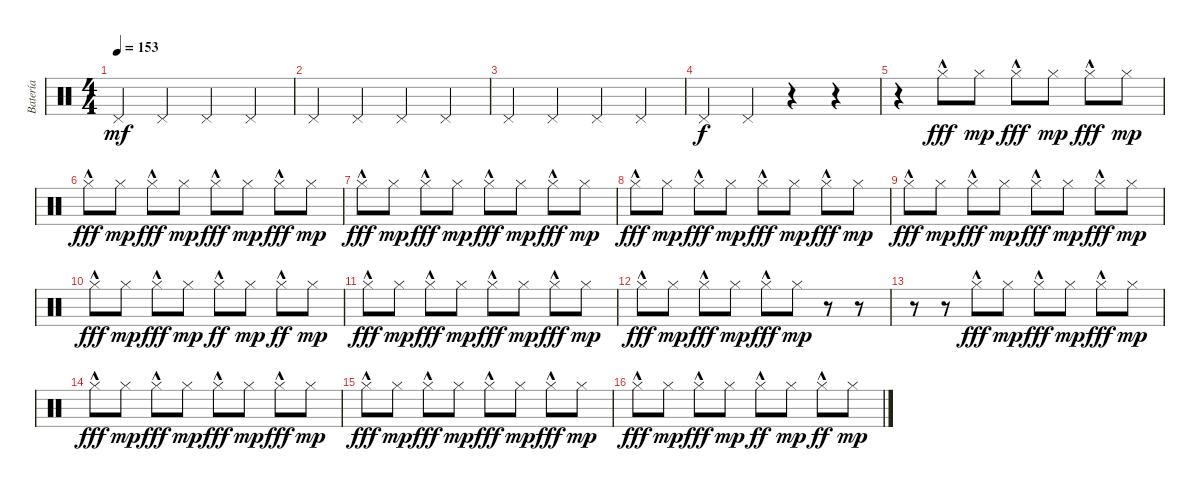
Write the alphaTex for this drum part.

\track ("Batería" "Batería") {instrument percussion}
\staff {score}
\articulation defaults
\ts (4 4)
\tempo 153
\clef neutral
\ks c "Pedal Hi-Hat (hit)".4{dy mf} "Pedal Hi-Hat (hit)".4 "Pedal Hi-Hat (hit)".4 "Pedal Hi-Hat (hit)".4
|
"Pedal Hi-Hat (hit)".4 "Pedal Hi-Hat (hit)".4 "Pedal Hi-Hat (hit)".4 "Pedal Hi-Hat (hit)".4 |
"Pedal Hi-Hat (hit)".4 "Pedal Hi-Hat (hit)".4 "Pedal Hi-Hat (hit)".4 "Pedal Hi-Hat (hit)".4 |
"Pedal Hi-Hat (hit)".4{dy f} "Pedal Hi-Hat (hit)".4 r.4 r.4 |
r.4 "Hi-Hat (closed)"{hac}.8{dy fff} "Hi-Hat (closed)".8{dy mp} "Hi-Hat (closed)"{hac}.8{dy fff} "Hi-Hat (closed)".8{dy mp} "Hi-Hat (closed)"{hac}.8{dy fff} "Hi-Hat (closed)".8{dy mp} |
"Hi-Hat (closed)"{hac}.8{dy fff} "Hi-Hat (closed)".8{dy mp} "Hi-Hat (closed)"{hac}.8{dy fff} "Hi-Hat (closed)".8{dy mp} "Hi-Hat (closed)"{hac}.8{dy fff} "Hi-Hat (closed)".8{dy mp} "Hi-Hat (closed)"{hac}.8{dy fff} "Hi-Hat (closed)".8{dy mp} |
"Hi-Hat (closed)"{hac}.8{dy fff} "Hi-Hat (closed)".8{dy mp} "Hi-Hat (closed)"{hac}.8{dy fff} "Hi-Hat (closed)".8{dy mp} "Hi-Hat (closed)"{hac}.8{dy fff} "Hi-Hat (closed)".8{dy mp} "Hi-Hat (closed)"{hac}.8{dy fff} "Hi-Hat (closed)".8{dy mp} |
"Hi-Hat (closed)"{hac}.8{dy fff} "Hi-Hat (closed)".8{dy mp} "Hi-Hat (closed)"{hac}.8{dy fff} "Hi-Hat (closed)".8{dy mp} "Hi-Hat (closed)"{hac}.8{dy fff} "Hi-Hat (closed)".8{dy mp} "Hi-Hat (closed)"{hac}.8{dy fff} "Hi-Hat (closed)".8{dy mp} |
"Hi-Hat (closed)"{hac}.8{dy fff} "Hi-Hat (closed)".8{dy mp} "Hi-Hat (closed)"{hac}.8{dy fff} "Hi-Hat (closed)".8{dy mp} "Hi-Hat (closed)"{hac}.8{dy fff} "Hi-Hat (closed)".8{dy mp} "Hi-Hat (closed)"{hac}.8{dy fff} "Hi-Hat (closed)".8{dy mp} |
"Hi-Hat (closed)"{hac}.8{dy fff} "Hi-Hat (closed)".8{dy mp} "Hi-Hat (closed)"{hac}.8{dy fff} "Hi-Hat (closed)".8{dy mp} "Hi-Hat (closed)"{hac}.8{dy ff} "Hi-Hat (closed)".8{dy mp} "Hi-Hat (closed)"{hac}.8{dy ff} "Hi-Hat (closed)".8{dy mp} |
"Hi-Hat (closed)"{hac}.8{dy fff} "Hi-Hat (closed)".8{dy mp} "Hi-Hat (closed)"{hac}.8{dy fff} "Hi-Hat (closed)".8{dy mp} "Hi-Hat (closed)"{hac}.8{dy fff} "Hi-Hat (closed)".8{dy mp} "Hi-Hat (closed)"{hac}.8{dy fff} "Hi-Hat (closed)".8{dy mp} |
"Hi-Hat (closed)"{hac}.8{dy fff} "Hi-Hat (closed)".8{dy mp} "Hi-Hat (closed)"{hac}.8{dy fff} "Hi-Hat (closed)".8{dy mp} "Hi-Hat (closed)"{hac}.8{dy fff} "Hi-Hat (closed)".8{dy mp} r.8 r.8 |
r.8 r.8 "Hi-Hat (closed)"{hac}.8{dy fff} "Hi-Hat (closed)".8{dy mp} "Hi-Hat (closed)"{hac}.8{dy fff} "Hi-Hat (closed)".8{dy mp} "Hi-Hat (closed)"{hac}.8{dy fff} "Hi-Hat (closed)".8{dy mp} |
"Hi-Hat (closed)"{hac}.8{dy fff} "Hi-Hat (closed)".8{dy mp} "Hi-Hat (closed)"{hac}.8{dy fff} "Hi-Hat (closed)".8{dy mp} "Hi-Hat (closed)"{hac}.8{dy fff} "Hi-Hat (closed)".8{dy mp} "Hi-Hat (closed)"{hac}.8{dy fff} "Hi-Hat (closed)".8{dy mp} |
"Hi-Hat (closed)"{hac}.8{dy fff} "Hi-Hat (closed)".8{dy mp} "Hi-Hat (closed)"{hac}.8{dy fff} "Hi-Hat (closed)".8{dy mp} "Hi-Hat (closed)"{hac}.8{dy fff} "Hi-Hat (closed)".8{dy mp} "Hi-Hat (closed)"{hac}.8{dy fff} "Hi-Hat (closed)".8{dy mp} |
"Hi-Hat (closed)"{hac}.8{dy fff} "Hi-Hat (closed)".8{dy mp} "Hi-Hat (closed)"{hac}.8{dy fff} "Hi-Hat (closed)".8{dy mp} "Hi-Hat (closed)"{hac}.8{dy ff} "Hi-Hat (closed)".8{dy mp} "Hi-Hat (closed)"{hac}.8{dy ff} "Hi-Hat (closed)".8{dy mp}
